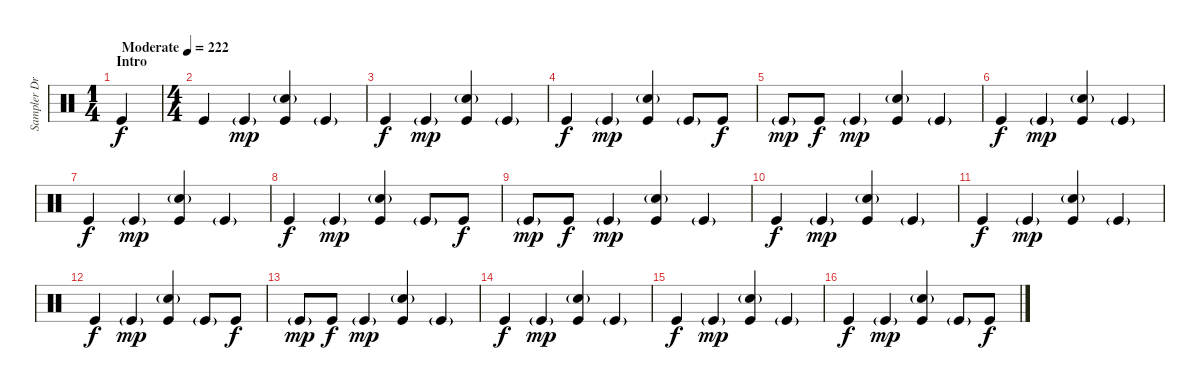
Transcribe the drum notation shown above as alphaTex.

\track ("Sampler Drums 1" "Sampler Dr") {instrument percussion}
\staff {score}
\articulation defaults
\ts (1 4)
\section ("" "Intro")
\tempo (222 "Moderate")
\clef neutral
\ks c "Kick (hit)".4{dy f volume 10}
|
\ts (4 4)
"Kick (hit)".4{volume 10} "Kick (hit)"{g}.4{dy mp} ("Kick (hit)" "Snare (hit) 2"{g}).4 "Kick (hit)"{g}.4 |
"Kick (hit)".4{dy f} "Kick (hit)"{g}.4{dy mp} ("Kick (hit)" "Snare (hit) 2"{g}).4 "Kick (hit)"{g}.4 |
"Kick (hit)".4{dy f} "Kick (hit)"{g}.4{dy mp} ("Kick (hit)" "Snare (hit) 2"{g}).4 "Kick (hit)"{g}.8 "Kick (hit)".8{dy f} |
"Kick (hit)"{g}.8{dy mp volume 10} "Kick (hit)".8{dy f} "Kick (hit)"{g}.4{dy mp} ("Kick (hit)" "Snare (hit) 2"{g}).4 "Kick (hit)"{g}.4 |
"Kick (hit)".4{dy f} "Kick (hit)"{g}.4{dy mp} ("Kick (hit)" "Snare (hit) 2"{g}).4 "Kick (hit)"{g}.4 |
"Kick (hit)".4{dy f} "Kick (hit)"{g}.4{dy mp} ("Kick (hit)" "Snare (hit) 2"{g}).4 "Kick (hit)"{g}.4 |
"Kick (hit)".4{dy f} "Kick (hit)"{g}.4{dy mp} ("Kick (hit)" "Snare (hit) 2"{g}).4 "Kick (hit)"{g}.8 "Kick (hit)".8{dy f} |
"Kick (hit)"{g}.8{dy mp} "Kick (hit)".8{dy f} "Kick (hit)"{g}.4{dy mp} ("Kick (hit)" "Snare (hit) 2"{g}).4 "Kick (hit)"{g}.4 |
"Kick (hit)".4{dy f} "Kick (hit)"{g}.4{dy mp} ("Kick (hit)" "Snare (hit) 2"{g}).4 "Kick (hit)"{g}.4 |
"Kick (hit)".4{dy f} "Kick (hit)"{g}.4{dy mp} ("Kick (hit)" "Snare (hit) 2"{g}).4 "Kick (hit)"{g}.4 |
"Kick (hit)".4{dy f} "Kick (hit)"{g}.4{dy mp} ("Kick (hit)" "Snare (hit) 2"{g}).4 "Kick (hit)"{g}.8 "Kick (hit)".8{dy f} |
"Kick (hit)"{g}.8{dy mp} "Kick (hit)".8{dy f} "Kick (hit)"{g}.4{dy mp} ("Kick (hit)" "Snare (hit) 2"{g}).4 "Kick (hit)"{g}.4 |
"Kick (hit)".4{dy f} "Kick (hit)"{g}.4{dy mp} ("Kick (hit)" "Snare (hit) 2"{g}).4 "Kick (hit)"{g}.4 |
"Kick (hit)".4{dy f} "Kick (hit)"{g}.4{dy mp} ("Kick (hit)" "Snare (hit) 2"{g}).4 "Kick (hit)"{g}.4 |
"Kick (hit)".4{dy f} "Kick (hit)"{g}.4{dy mp} ("Kick (hit)" "Snare (hit) 2"{g}).4 "Kick (hit)"{g}.8 "Kick (hit)".8{dy f}
